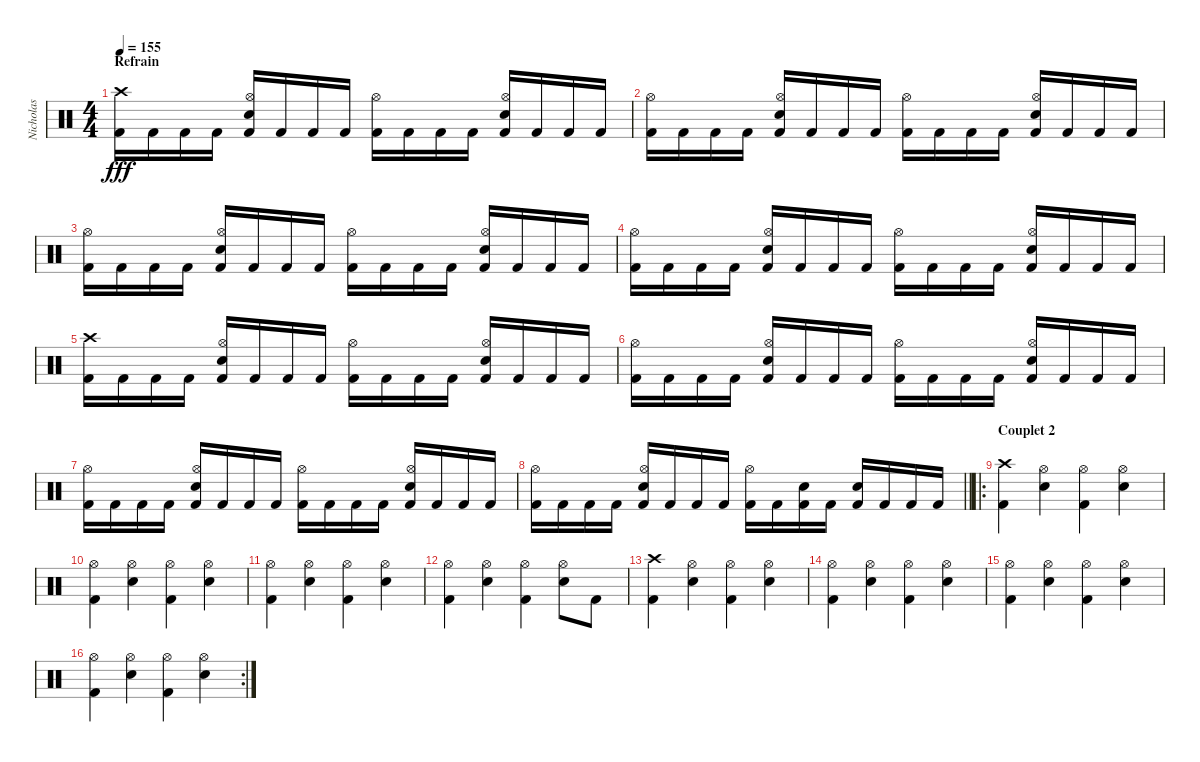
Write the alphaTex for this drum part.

\track ("Nicholas" "Nicholas") {instrument percussion}
\staff {score}
\articulation defaults
\ts (4 4)
\section ("" "Refrain")
\tempo 155
\clef neutral
\ks c
("Crash high (hit)" "Kick (hit) 2").16{dy fff} "Kick (hit) 2".16 "Kick (hit) 2".16 "Kick (hit) 2".16 ("Hi-Hat (open)" "Electric Snare (hit)" "Kick (hit) 2").16 "Kick (hit) 2".16 "Kick (hit) 2".16 "Kick (hit) 2".16 ("Hi-Hat (open)" "Kick (hit) 2").16 "Kick (hit) 2".16 "Kick (hit) 2".16 "Kick (hit) 2".16 ("Hi-Hat (open)" "Electric Snare (hit)" "Kick (hit) 2").16 "Kick (hit) 2".16 "Kick (hit) 2".16 "Kick (hit) 2".16 |
("Hi-Hat (open)" "Kick (hit) 2").16 "Kick (hit) 2".16 "Kick (hit) 2".16 "Kick (hit) 2".16 ("Hi-Hat (open)" "Electric Snare (hit)" "Kick (hit) 2").16 "Kick (hit) 2".16 "Kick (hit) 2".16 "Kick (hit) 2".16 ("Hi-Hat (open)" "Kick (hit) 2").16 "Kick (hit) 2".16 "Kick (hit) 2".16 "Kick (hit) 2".16 ("Hi-Hat (open)" "Electric Snare (hit)" "Kick (hit) 2").16 "Kick (hit) 2".16 "Kick (hit) 2".16 "Kick (hit) 2".16 |
("Hi-Hat (open)" "Kick (hit) 2").16 "Kick (hit) 2".16 "Kick (hit) 2".16 "Kick (hit) 2".16 ("Hi-Hat (open)" "Electric Snare (hit)" "Kick (hit) 2").16 "Kick (hit) 2".16 "Kick (hit) 2".16 "Kick (hit) 2".16 ("Hi-Hat (open)" "Kick (hit) 2").16 "Kick (hit) 2".16 "Kick (hit) 2".16 "Kick (hit) 2".16 ("Hi-Hat (open)" "Electric Snare (hit)" "Kick (hit) 2").16 "Kick (hit) 2".16 "Kick (hit) 2".16 "Kick (hit) 2".16 |
("Hi-Hat (open)" "Kick (hit) 2").16 "Kick (hit) 2".16 "Kick (hit) 2".16 "Kick (hit) 2".16 ("Hi-Hat (open)" "Electric Snare (hit)" "Kick (hit) 2").16 "Kick (hit) 2".16 "Kick (hit) 2".16 "Kick (hit) 2".16 ("Hi-Hat (open)" "Kick (hit) 2").16 "Kick (hit) 2".16 "Kick (hit) 2".16 "Kick (hit) 2".16 ("Hi-Hat (open)" "Electric Snare (hit)" "Kick (hit) 2").16 "Kick (hit) 2".16 "Kick (hit) 2".16 "Kick (hit) 2".16 |
("Crash high (hit)" "Kick (hit) 2").16 "Kick (hit) 2".16 "Kick (hit) 2".16 "Kick (hit) 2".16 ("Hi-Hat (open)" "Electric Snare (hit)" "Kick (hit) 2").16 "Kick (hit) 2".16 "Kick (hit) 2".16 "Kick (hit) 2".16 ("Hi-Hat (open)" "Kick (hit) 2").16 "Kick (hit) 2".16 "Kick (hit) 2".16 "Kick (hit) 2".16 ("Hi-Hat (open)" "Electric Snare (hit)" "Kick (hit) 2").16 "Kick (hit) 2".16 "Kick (hit) 2".16 "Kick (hit) 2".16 |
("Hi-Hat (open)" "Kick (hit) 2").16 "Kick (hit) 2".16 "Kick (hit) 2".16 "Kick (hit) 2".16 ("Hi-Hat (open)" "Electric Snare (hit)" "Kick (hit) 2").16 "Kick (hit) 2".16 "Kick (hit) 2".16 "Kick (hit) 2".16 ("Hi-Hat (open)" "Kick (hit) 2").16 "Kick (hit) 2".16 "Kick (hit) 2".16 "Kick (hit) 2".16 ("Hi-Hat (open)" "Electric Snare (hit)" "Kick (hit) 2").16 "Kick (hit) 2".16 "Kick (hit) 2".16 "Kick (hit) 2".16 |
("Hi-Hat (open)" "Kick (hit) 2").16 "Kick (hit) 2".16 "Kick (hit) 2".16 "Kick (hit) 2".16 ("Hi-Hat (open)" "Electric Snare (hit)" "Kick (hit) 2").16 "Kick (hit) 2".16 "Kick (hit) 2".16 "Kick (hit) 2".16 ("Hi-Hat (open)" "Kick (hit) 2").16 "Kick (hit) 2".16 "Kick (hit) 2".16 "Kick (hit) 2".16 ("Hi-Hat (open)" "Electric Snare (hit)" "Kick (hit) 2").16 "Kick (hit) 2".16 "Kick (hit) 2".16 "Kick (hit) 2".16 |
\barLineRight lightlight
("Hi-Hat (open)" "Kick (hit) 2").16 "Kick (hit) 2".16 "Kick (hit) 2".16 "Kick (hit) 2".16 ("Hi-Hat (open)" "Electric Snare (hit)" "Kick (hit) 2").16 "Kick (hit) 2".16 "Kick (hit) 2".16 "Kick (hit) 2".16 ("Hi-Hat (open)" "Kick (hit) 2").16 "Kick (hit) 2".16 ("Electric Snare (hit)" "Kick (hit) 2").16 "Kick (hit) 2".16 ("Electric Snare (hit)" "Kick (hit) 2").16 "Kick (hit) 2".16 "Kick (hit) 2".16 "Kick (hit) 2".16 |
\ro
\section ("" "Couplet 2")
("Crash high (hit)" "Kick (hit) 2").4 ("Hi-Hat (open)" "Electric Snare (hit)").4 ("Hi-Hat (open)" "Kick (hit) 2").4 ("Hi-Hat (open)" "Electric Snare (hit)").4 |
("Hi-Hat (open)" "Kick (hit) 2").4 ("Hi-Hat (open)" "Electric Snare (hit)").4 ("Hi-Hat (open)" "Kick (hit) 2").4 ("Hi-Hat (open)" "Electric Snare (hit)").4 |
("Hi-Hat (open)" "Kick (hit) 2").4 ("Hi-Hat (open)" "Electric Snare (hit)").4 ("Hi-Hat (open)" "Kick (hit) 2").4 ("Hi-Hat (open)" "Electric Snare (hit)").4 |
("Hi-Hat (open)" "Kick (hit) 2").4 ("Hi-Hat (open)" "Electric Snare (hit)").4 ("Hi-Hat (open)" "Kick (hit) 2").4 ("Hi-Hat (open)" "Electric Snare (hit)").8 "Kick (hit) 2".8 |
("Crash high (hit)" "Kick (hit) 2").4 ("Hi-Hat (open)" "Electric Snare (hit)").4 ("Hi-Hat (open)" "Kick (hit) 2").4 ("Hi-Hat (open)" "Electric Snare (hit)").4 |
("Hi-Hat (open)" "Kick (hit) 2").4 ("Hi-Hat (open)" "Electric Snare (hit)").4 ("Hi-Hat (open)" "Kick (hit) 2").4 ("Hi-Hat (open)" "Electric Snare (hit)").4 |
("Hi-Hat (open)" "Kick (hit) 2").4 ("Hi-Hat (open)" "Electric Snare (hit)").4 ("Hi-Hat (open)" "Kick (hit) 2").4 ("Hi-Hat (open)" "Electric Snare (hit)").4 |
\rc 2
("Hi-Hat (open)" "Kick (hit) 2").4 ("Hi-Hat (open)" "Electric Snare (hit)").4 ("Hi-Hat (open)" "Kick (hit) 2").4 ("Hi-Hat (open)" "Electric Snare (hit)").4
